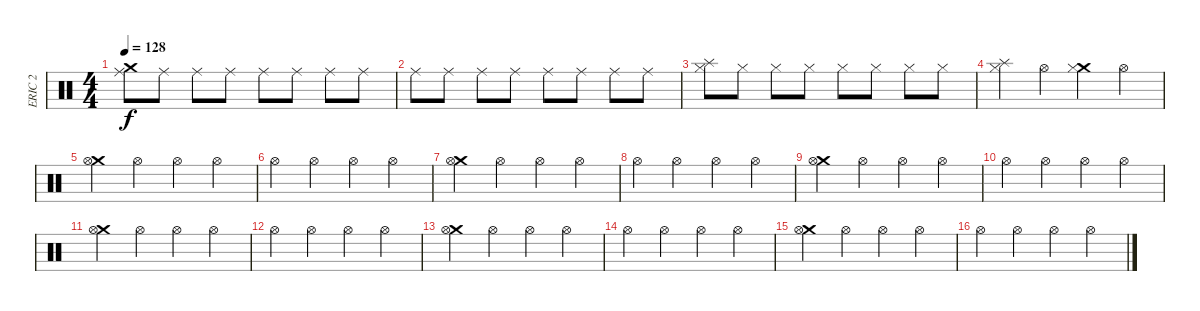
\track ("ERIC 2" "ERIC 2") {instrument percussion}
\staff {score}
\articulation defaults
\ts (4 4)
\tempo 128
\clef neutral
\ks c
("Crash medium (hit)" "Ride (middle)").8{dy f} "Ride (middle)".8 "Ride (middle)".8 "Ride (middle)".8 "Ride (middle)".8 "Ride (middle)".8 "Ride (middle)".8 "Ride (middle)".8 |
"Ride (middle)".8 "Ride (middle)".8 "Ride (middle)".8 "Ride (middle)".8 "Ride (middle)".8 "Ride (middle)".8 "Ride (middle)".8 "Ride (middle)".8 |
("Splash (hit)" "Hi-Hat (closed)").8 "Hi-Hat (closed)".8 "Hi-Hat (closed)".8 "Hi-Hat (closed)".8 "Hi-Hat (closed)".8 "Hi-Hat (closed)".8 "Hi-Hat (closed)".8 "Hi-Hat (closed)".8 |
("Splash (hit)" "Hi-Hat (closed)").4 "Hi-Hat (open)".4 ("Crash medium (hit)" "Hi-Hat (closed)").4 "Hi-Hat (open)".4 |
("Crash medium (hit)" "Hi-Hat (open)").4 "Hi-Hat (open)".4 "Hi-Hat (open)".4 "Hi-Hat (open)".4 |
"Hi-Hat (open)".4 "Hi-Hat (open)".4 "Hi-Hat (open)".4 "Hi-Hat (open)".4 |
("Crash medium (hit)" "Hi-Hat (open)").4 "Hi-Hat (open)".4 "Hi-Hat (open)".4 "Hi-Hat (open)".4 |
"Hi-Hat (open)".4 "Hi-Hat (open)".4 "Hi-Hat (open)".4 "Hi-Hat (open)".4 |
("Crash medium (hit)" "Hi-Hat (open)").4 "Hi-Hat (open)".4 "Hi-Hat (open)".4 "Hi-Hat (open)".4 |
"Hi-Hat (open)".4 "Hi-Hat (open)".4 "Hi-Hat (open)".4 "Hi-Hat (open)".4 |
("Crash medium (hit)" "Hi-Hat (open)").4 "Hi-Hat (open)".4 "Hi-Hat (open)".4 "Hi-Hat (open)".4 |
"Hi-Hat (open)".4 "Hi-Hat (open)".4 "Hi-Hat (open)".4 "Hi-Hat (open)".4 |
("Crash medium (hit)" "Hi-Hat (open)").4 "Hi-Hat (open)".4 "Hi-Hat (open)".4 "Hi-Hat (open)".4 |
"Hi-Hat (open)".4 "Hi-Hat (open)".4 "Hi-Hat (open)".4 "Hi-Hat (open)".4 |
("Crash medium (hit)" "Hi-Hat (open)").4 "Hi-Hat (open)".4 "Hi-Hat (open)".4 "Hi-Hat (open)".4 |
"Hi-Hat (open)".4 "Hi-Hat (open)".4 "Hi-Hat (open)".4 "Hi-Hat (open)".4
